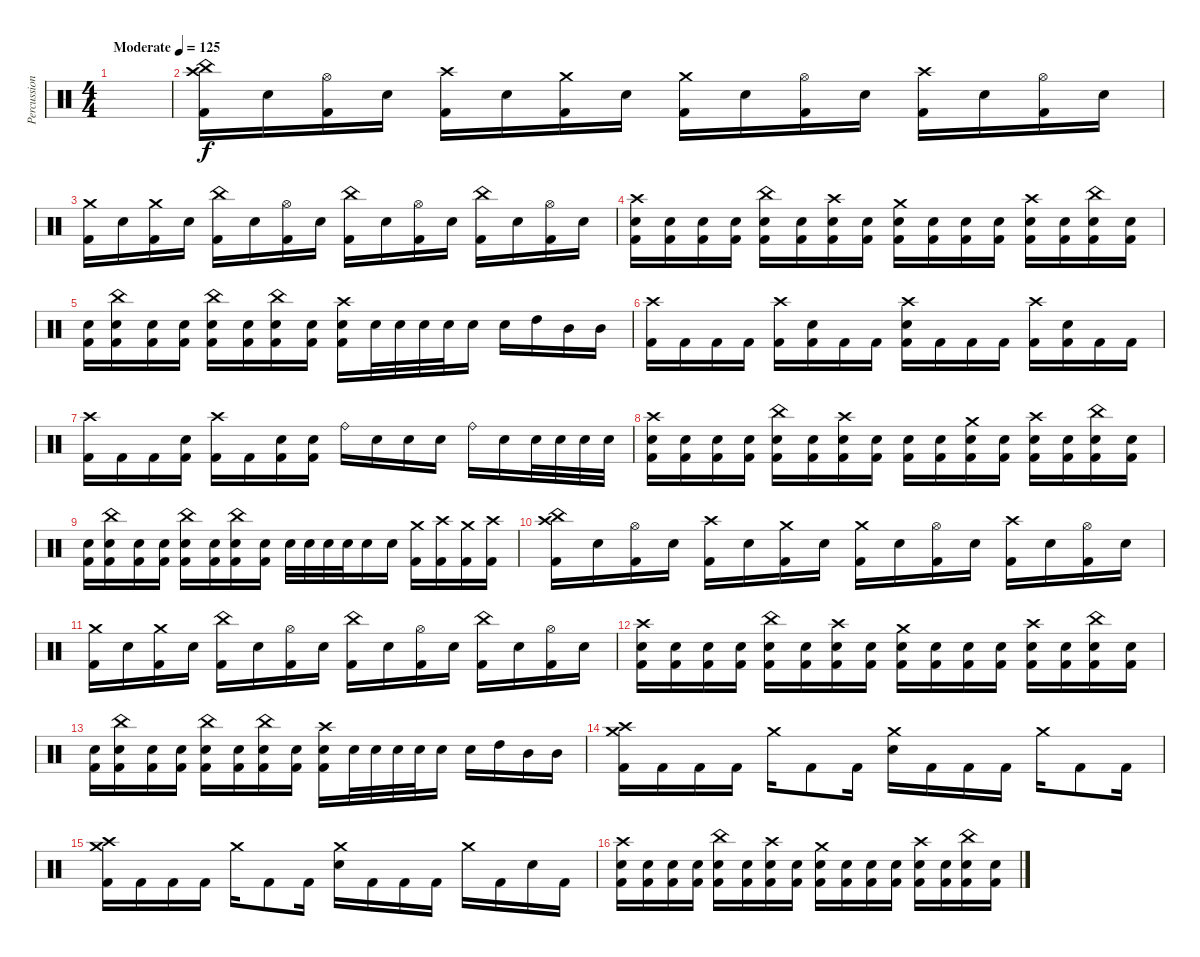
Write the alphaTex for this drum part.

\track ("Percussion" "Percussion") {instrument percussion}
\staff {score}
\articulation defaults
\ts (4 4)
\tempo (125 "Moderate")
\clef neutral
\ks c
|
("China (hit)" "Crash high (hit)" "Kick (hit) 2").16 "Electric Snare (hit)".16 ("Hi-Hat (open)" "Kick (hit) 2").16 "Electric Snare (hit)".16 ("Crash high (hit)" "Kick (hit) 2").16 "Electric Snare (hit)".16 ("Crash medium (hit)" "Kick (hit) 2").16 "Electric Snare (hit)".16 ("Crash medium (hit)" "Kick (hit) 2").16 "Electric Snare (hit)".16 ("Hi-Hat (open)" "Kick (hit) 2").16 "Electric Snare (hit)".16 ("Crash high (hit)" "Kick (hit) 2").16 "Electric Snare (hit)".16 ("Hi-Hat (open)" "Kick (hit) 2").16 "Electric Snare (hit)".16 |
("Crash medium (hit)" "Kick (hit) 2").16 "Electric Snare (hit)".16 ("Crash medium (hit)" "Kick (hit) 2").16 "Electric Snare (hit)".16 ("China (hit)" "Kick (hit) 2").16 "Electric Snare (hit)".16 ("Hi-Hat (open)" "Kick (hit) 2").16 "Electric Snare (hit)".16 ("China (hit)" "Kick (hit) 2").16 "Electric Snare (hit)".16 ("Hi-Hat (open)" "Kick (hit) 2").16 "Electric Snare (hit)".16 ("China (hit)" "Kick (hit) 2").16 "Electric Snare (hit)".16 ("Hi-Hat (open)" "Kick (hit) 2").16 "Electric Snare (hit)".16 |
("Crash high (hit)" "Electric Snare (hit)" "Kick (hit) 2").16 ("Electric Snare (hit)" "Kick (hit) 2").16 ("Electric Snare (hit)" "Kick (hit) 2").16 ("Electric Snare (hit)" "Kick (hit) 2").16 ("China (hit)" "Electric Snare (hit)" "Kick (hit) 2").16 ("Electric Snare (hit)" "Kick (hit) 2").16 ("Crash high (hit)" "Electric Snare (hit)" "Kick (hit) 2").16 ("Electric Snare (hit)" "Kick (hit) 2").16 ("Crash medium (hit)" "Electric Snare (hit)" "Kick (hit) 2").16 ("Electric Snare (hit)" "Kick (hit) 2").16 ("Electric Snare (hit)" "Kick (hit) 2").16 ("Electric Snare (hit)" "Kick (hit) 2").16 ("Crash high (hit)" "Electric Snare (hit)" "Kick (hit) 2").16 ("Electric Snare (hit)" "Kick (hit) 2").16 ("China (hit)" "Electric Snare (hit)" "Kick (hit) 2").16 ("Electric Snare (hit)" "Kick (hit) 2").16 |
("Electric Snare (hit)" "Kick (hit) 2").16 ("China (hit)" "Electric Snare (hit)" "Kick (hit) 2").16 ("Electric Snare (hit)" "Kick (hit) 2").16 ("Electric Snare (hit)" "Kick (hit) 2").16 ("China (hit)" "Electric Snare (hit)" "Kick (hit) 2").16 ("Electric Snare (hit)" "Kick (hit) 2").16 ("China (hit)" "Electric Snare (hit)" "Kick (hit) 2").16 ("Electric Snare (hit)" "Kick (hit) 2").16 ("Crash high (hit)" "Electric Snare (hit)" "Kick (hit) 2").16 "Electric Snare (hit)".32 "Electric Snare (hit)".32 "Electric Snare (hit)".32 "Electric Snare (hit)".32 "Electric Snare (hit)".16 "Electric Snare (hit)".16 "High Tom (hit)".16 "Mid Tom (hit)".16 "Mid Tom (hit)".16 |
("Crash high (hit)" "Kick (hit) 2").16 "Kick (hit) 2".16 "Kick (hit) 2".16 "Kick (hit) 2".16 ("Crash high (hit)" "Kick (hit) 2").16 ("Electric Snare (hit)" "Kick (hit) 2").16 "Kick (hit) 2".16 "Kick (hit) 2".16 ("Crash high (hit)" "Electric Snare (hit)" "Kick (hit) 2").16 "Kick (hit) 2".16 "Kick (hit) 2".16 "Kick (hit) 2".16 ("Crash high (hit)" "Kick (hit) 2").16 ("Electric Snare (hit)" "Kick (hit) 2").16 "Kick (hit) 2".16 "Kick (hit) 2".16 |
("Crash high (hit)" "Kick (hit) 2").16 "Kick (hit) 2".16 "Kick (hit) 2".16 ("Electric Snare (hit)" "Kick (hit) 2").16 ("Crash high (hit)" "Kick (hit) 2").16 "Kick (hit) 2".16 ("Electric Snare (hit)" "Kick (hit) 2").16 ("Electric Snare (hit)" "Kick (hit) 2").16 "Ride (bell)".16 "Electric Snare (hit)".16 "Electric Snare (hit)".16 "Electric Snare (hit)".16 "Ride (bell)".16 "Electric Snare (hit)".16 "Electric Snare (hit)".32 "Electric Snare (hit)".32 "Electric Snare (hit)".32 "Electric Snare (hit)".32 |
("Crash high (hit)" "Electric Snare (hit)" "Kick (hit) 2").16 ("Electric Snare (hit)" "Kick (hit) 2").16 ("Electric Snare (hit)" "Kick (hit) 2").16 ("Electric Snare (hit)" "Kick (hit) 2").16 ("China (hit)" "Electric Snare (hit)" "Kick (hit) 2").16 ("Electric Snare (hit)" "Kick (hit) 2").16 ("Crash high (hit)" "Electric Snare (hit)" "Kick (hit) 2").16 ("Electric Snare (hit)" "Kick (hit) 2").16 ("Electric Snare (hit)" "Kick (hit) 2").16 ("Electric Snare (hit)" "Kick (hit) 2").16 ("Crash medium (hit)" "Electric Snare (hit)" "Kick (hit) 2").16 ("Electric Snare (hit)" "Kick (hit) 2").16 ("Crash high (hit)" "Electric Snare (hit)" "Kick (hit) 2").16 ("Electric Snare (hit)" "Kick (hit) 2").16 ("China (hit)" "Electric Snare (hit)" "Kick (hit) 2").16 ("Electric Snare (hit)" "Kick (hit) 2").16 |
("Electric Snare (hit)" "Kick (hit) 2").16 ("China (hit)" "Electric Snare (hit)" "Kick (hit) 2").16 ("Electric Snare (hit)" "Kick (hit) 2").16 ("Electric Snare (hit)" "Kick (hit) 2").16 ("China (hit)" "Electric Snare (hit)" "Kick (hit) 2").16 ("Electric Snare (hit)" "Kick (hit) 2").16 ("China (hit)" "Electric Snare (hit)" "Kick (hit) 2").16 ("Electric Snare (hit)" "Kick (hit) 2").16 "Electric Snare (hit)".32 "Electric Snare (hit)".32 "Electric Snare (hit)".32 "Electric Snare (hit)".32 "Electric Snare (hit)".16 "Electric Snare (hit)".16 ("Crash medium (hit)" "Kick (hit) 2").16 ("Crash high (hit)" "Kick (hit) 2").16 ("Crash medium (hit)" "Kick (hit) 2").16 ("Crash high (hit)" "Kick (hit) 2").16 |
("China (hit)" "Crash high (hit)" "Kick (hit) 2").16 "Electric Snare (hit)".16 ("Hi-Hat (open)" "Kick (hit) 2").16 "Electric Snare (hit)".16 ("Crash high (hit)" "Kick (hit) 2").16 "Electric Snare (hit)".16 ("Crash medium (hit)" "Kick (hit) 2").16 "Electric Snare (hit)".16 ("Crash medium (hit)" "Kick (hit) 2").16 "Electric Snare (hit)".16 ("Hi-Hat (open)" "Kick (hit) 2").16 "Electric Snare (hit)".16 ("Crash high (hit)" "Kick (hit) 2").16 "Electric Snare (hit)".16 ("Hi-Hat (open)" "Kick (hit) 2").16 "Electric Snare (hit)".16 |
("Crash medium (hit)" "Kick (hit) 2").16 "Electric Snare (hit)".16 ("Crash medium (hit)" "Kick (hit) 2").16 "Electric Snare (hit)".16 ("China (hit)" "Kick (hit) 2").16 "Electric Snare (hit)".16 ("Hi-Hat (open)" "Kick (hit) 2").16 "Electric Snare (hit)".16 ("China (hit)" "Kick (hit) 2").16 "Electric Snare (hit)".16 ("Hi-Hat (open)" "Kick (hit) 2").16 "Electric Snare (hit)".16 ("China (hit)" "Kick (hit) 2").16 "Electric Snare (hit)".16 ("Hi-Hat (open)" "Kick (hit) 2").16 "Electric Snare (hit)".16 |
("Crash high (hit)" "Electric Snare (hit)" "Kick (hit) 2").16 ("Electric Snare (hit)" "Kick (hit) 2").16 ("Electric Snare (hit)" "Kick (hit) 2").16 ("Electric Snare (hit)" "Kick (hit) 2").16 ("China (hit)" "Electric Snare (hit)" "Kick (hit) 2").16 ("Electric Snare (hit)" "Kick (hit) 2").16 ("Crash high (hit)" "Electric Snare (hit)" "Kick (hit) 2").16 ("Electric Snare (hit)" "Kick (hit) 2").16 ("Crash medium (hit)" "Electric Snare (hit)" "Kick (hit) 2").16 ("Electric Snare (hit)" "Kick (hit) 2").16 ("Electric Snare (hit)" "Kick (hit) 2").16 ("Electric Snare (hit)" "Kick (hit) 2").16 ("Crash high (hit)" "Electric Snare (hit)" "Kick (hit) 2").16 ("Electric Snare (hit)" "Kick (hit) 2").16 ("China (hit)" "Electric Snare (hit)" "Kick (hit) 2").16 ("Electric Snare (hit)" "Kick (hit) 2").16 |
("Electric Snare (hit)" "Kick (hit) 2").16 ("China (hit)" "Electric Snare (hit)" "Kick (hit) 2").16 ("Electric Snare (hit)" "Kick (hit) 2").16 ("Electric Snare (hit)" "Kick (hit) 2").16 ("China (hit)" "Electric Snare (hit)" "Kick (hit) 2").16 ("Electric Snare (hit)" "Kick (hit) 2").16 ("China (hit)" "Electric Snare (hit)" "Kick (hit) 2").16 ("Electric Snare (hit)" "Kick (hit) 2").16 ("Crash high (hit)" "Electric Snare (hit)" "Kick (hit) 2").16 "Electric Snare (hit)".32 "Electric Snare (hit)".32 "Electric Snare (hit)".32 "Electric Snare (hit)".32 "Electric Snare (hit)".16 "Electric Snare (hit)".16 "High Tom (hit)".16 "Mid Tom (hit)".16 "Mid Tom (hit)".16 |
("Crash medium (hit)" "Crash high (hit)" "Kick (hit) 2").16 "Kick (hit) 2".16 "Kick (hit) 2".16 "Kick (hit) 2".16 "Crash medium (hit)".16 "Kick (hit) 2".8 "Kick (hit) 2".16 ("Crash medium (hit)" "Electric Snare (hit)").16 "Kick (hit) 2".16 "Kick (hit) 2".16 "Kick (hit) 2".16 "Crash medium (hit)".16 "Kick (hit) 2".8 "Kick (hit) 2".16 |
("Crash medium (hit)" "Crash high (hit)" "Kick (hit) 2").16 "Kick (hit) 2".16 "Kick (hit) 2".16 "Kick (hit) 2".16 "Crash medium (hit)".16 "Kick (hit) 2".8 "Kick (hit) 2".16 ("Crash medium (hit)" "Electric Snare (hit)").16 "Kick (hit) 2".16 "Kick (hit) 2".16 "Kick (hit) 2".16 "Crash medium (hit)".16 "Kick (hit) 2".16 "Electric Snare (hit)".16 "Kick (hit) 2".16 |
("Crash high (hit)" "Electric Snare (hit)" "Kick (hit) 2").16 ("Electric Snare (hit)" "Kick (hit) 2").16 ("Electric Snare (hit)" "Kick (hit) 2").16 ("Electric Snare (hit)" "Kick (hit) 2").16 ("China (hit)" "Electric Snare (hit)" "Kick (hit) 2").16 ("Electric Snare (hit)" "Kick (hit) 2").16 ("Crash high (hit)" "Electric Snare (hit)" "Kick (hit) 2").16 ("Electric Snare (hit)" "Kick (hit) 2").16 ("Crash medium (hit)" "Electric Snare (hit)" "Kick (hit) 2").16 ("Electric Snare (hit)" "Kick (hit) 2").16 ("Electric Snare (hit)" "Kick (hit) 2").16 ("Electric Snare (hit)" "Kick (hit) 2").16 ("Crash high (hit)" "Electric Snare (hit)" "Kick (hit) 2").16 ("Electric Snare (hit)" "Kick (hit) 2").16 ("China (hit)" "Electric Snare (hit)" "Kick (hit) 2").16 ("Electric Snare (hit)" "Kick (hit) 2").16
